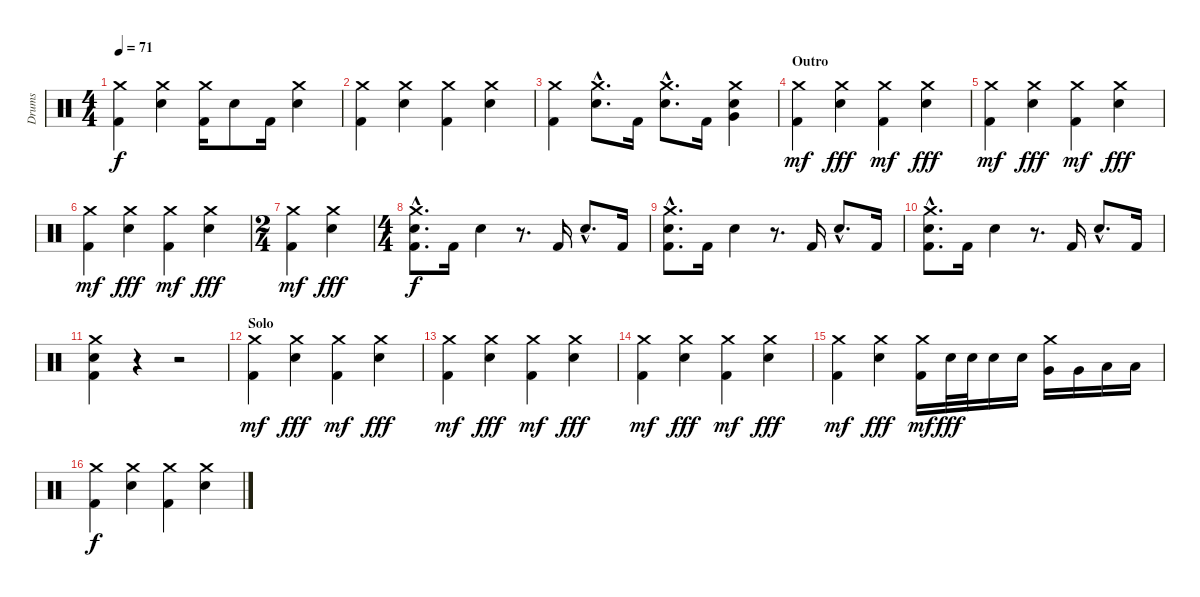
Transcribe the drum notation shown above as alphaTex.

\track ("Drums" "Drums") {instrument percussion}
\staff {score}
\articulation defaults
\ts (4 4)
\tempo 71
\clef neutral
\ks c
("Crash medium (hit)" "Kick (hit) 2").4{dy f} ("Crash medium (hit)" "Electric Snare (hit)").4 ("Crash medium (hit)" "Kick (hit) 2").16 "Electric Snare (hit)".8 "Kick (hit) 2".16 ("Crash medium (hit)" "Electric Snare (hit)").4 |
("Crash medium (hit)" "Kick (hit) 2").4 ("Crash medium (hit)" "Electric Snare (hit)").4 ("Crash medium (hit)" "Kick (hit) 2").4 ("Crash medium (hit)" "Electric Snare (hit)").4 |
("Crash medium (hit)" "Kick (hit) 2").4 ("Crash medium (hit)"{hac} "Electric Snare (hit)"{hac}).8{d} "Kick (hit) 2".16 ("Crash medium (hit)"{hac} "Electric Snare (hit)"{hac}).8{d} "Kick (hit) 2".16 ("Crash medium (hit)" "Electric Snare (hit)" "Very Low Tom (hit)").4 |
\section ("" "Outro")
("Crash medium (hit)" "Kick (hit) 2").4{dy mf} ("Crash medium (hit)" "Electric Snare (hit)").4{dy fff} ("Crash medium (hit)" "Kick (hit) 2").4{dy mf} ("Crash medium (hit)" "Electric Snare (hit)").4{dy fff} |
("Crash medium (hit)" "Kick (hit) 2").4{dy mf} ("Crash medium (hit)" "Electric Snare (hit)").4{dy fff} ("Crash medium (hit)" "Kick (hit) 2").4{dy mf} ("Crash medium (hit)" "Electric Snare (hit)").4{dy fff} |
("Crash medium (hit)" "Kick (hit) 2").4{dy mf} ("Crash medium (hit)" "Electric Snare (hit)").4{dy fff} ("Crash medium (hit)" "Kick (hit) 2").4{dy mf} ("Crash medium (hit)" "Electric Snare (hit)").4{dy fff} |
\ts (2 4)
("Crash medium (hit)" "Kick (hit) 2").4{dy mf} ("Crash medium (hit)" "Electric Snare (hit)").4{dy fff} |
\ts (4 4)
("Crash medium (hit)"{hac} "Electric Snare (hit)"{hac} "Kick (hit) 2"{hac}).8{d dy f} "Kick (hit) 2".16 "Electric Snare (hit)".4 r.8{d} "Kick (hit) 2".16 "Electric Snare (hit)"{hac}.8{d} "Kick (hit) 2".16 |
("Crash medium (hit)"{hac} "Electric Snare (hit)"{hac} "Kick (hit) 2"{hac}).8{d} "Kick (hit) 2".16 "Electric Snare (hit)".4 r.8{d} "Kick (hit) 2".16 "Electric Snare (hit)"{hac}.8{d} "Kick (hit) 2".16 |
("Crash medium (hit)"{hac} "Electric Snare (hit)"{hac} "Kick (hit) 2"{hac}).8{d} "Kick (hit) 2".16 "Electric Snare (hit)".4 r.8{d} "Kick (hit) 2".16 "Electric Snare (hit)"{hac}.8{d} "Kick (hit) 2".16 |
("Crash medium (hit)" "Electric Snare (hit)" "Kick (hit) 2").4 r.4 r.2 |
\section ("" "Solo")
("Crash medium (hit)" "Kick (hit) 2").4{dy mf} ("Crash medium (hit)" "Electric Snare (hit)").4{dy fff} ("Crash medium (hit)" "Kick (hit) 2").4{dy mf} ("Crash medium (hit)" "Electric Snare (hit)").4{dy fff} |
("Crash medium (hit)" "Kick (hit) 2").4{dy mf} ("Crash medium (hit)" "Electric Snare (hit)").4{dy fff} ("Crash medium (hit)" "Kick (hit) 2").4{dy mf} ("Crash medium (hit)" "Electric Snare (hit)").4{dy fff} |
("Crash medium (hit)" "Kick (hit) 2").4{dy mf} ("Crash medium (hit)" "Electric Snare (hit)").4{dy fff} ("Crash medium (hit)" "Kick (hit) 2").4{dy mf} ("Crash medium (hit)" "Electric Snare (hit)").4{dy fff} |
("Crash medium (hit)" "Kick (hit) 2").4{dy mf} ("Crash medium (hit)" "Electric Snare (hit)").4{dy fff} ("Crash medium (hit)" "Kick (hit) 2").16{dy mf} "Electric Snare (hit)".32{dy fff} "Electric Snare (hit)".32 "Electric Snare (hit)".16 "Electric Snare (hit)".16 ("Crash medium (hit)" "Very Low Tom (hit)").16 "Very Low Tom (hit)".16 "Low Floor Tom (hit)".16 "Low Floor Tom (hit)".16 |
("Crash medium (hit)" "Kick (hit) 2").4{dy f} ("Crash medium (hit)" "Electric Snare (hit)").4 ("Crash medium (hit)" "Kick (hit) 2").4 ("Crash medium (hit)" "Electric Snare (hit)").4
